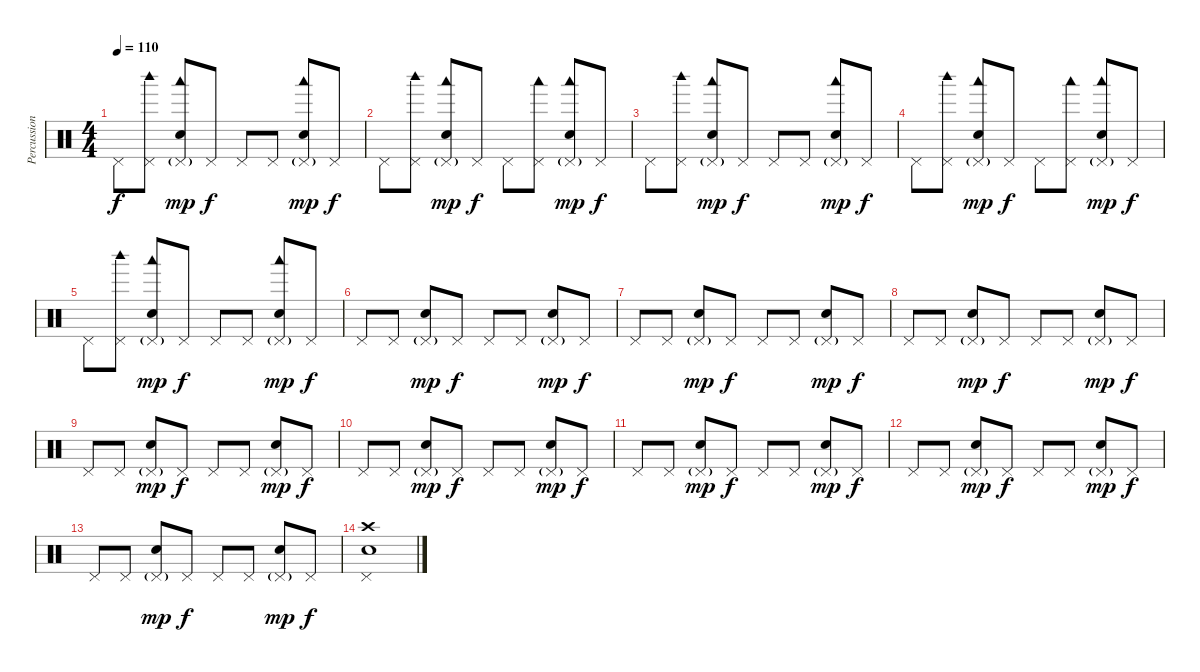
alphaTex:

\track ("Percussion" "Percussion") {instrument percussion}
\staff {score}
\articulation defaults
\ts (4 4)
\tempo 110
\clef neutral
\ks c "Pedal Hi-Hat (hit)".8{dy f}
("Woodblock high (hit)" "Pedal Hi-Hat (hit)").8 ("Woodblock low (hit)" "Pedal Hi-Hat (hit)"{g} "Electric Snare (hit)").8{dy mp} "Pedal Hi-Hat (hit)".8{dy f} "Pedal Hi-Hat (hit)".8 "Pedal Hi-Hat (hit)".8 ("Woodblock low (hit)" "Pedal Hi-Hat (hit)"{g} "Electric Snare (hit)").8{dy mp} "Pedal Hi-Hat (hit)".8{dy f} |
"Pedal Hi-Hat (hit)".8 ("Woodblock high (hit)" "Pedal Hi-Hat (hit)").8 ("Woodblock low (hit)" "Pedal Hi-Hat (hit)"{g} "Electric Snare (hit)").8{dy mp} "Pedal Hi-Hat (hit)".8{dy f} "Pedal Hi-Hat (hit)".8 ("Woodblock low (hit)" "Pedal Hi-Hat (hit)").8 ("Woodblock low (hit)" "Pedal Hi-Hat (hit)"{g} "Electric Snare (hit)").8{dy mp} "Pedal Hi-Hat (hit)".8{dy f} |
"Pedal Hi-Hat (hit)".8 ("Woodblock high (hit)" "Pedal Hi-Hat (hit)").8 ("Woodblock low (hit)" "Pedal Hi-Hat (hit)"{g} "Electric Snare (hit)").8{dy mp} "Pedal Hi-Hat (hit)".8{dy f} "Pedal Hi-Hat (hit)".8 "Pedal Hi-Hat (hit)".8 ("Woodblock low (hit)" "Pedal Hi-Hat (hit)"{g} "Electric Snare (hit)").8{dy mp} "Pedal Hi-Hat (hit)".8{dy f} |
"Pedal Hi-Hat (hit)".8 ("Woodblock high (hit)" "Pedal Hi-Hat (hit)").8 ("Woodblock low (hit)" "Pedal Hi-Hat (hit)"{g} "Electric Snare (hit)").8{dy mp} "Pedal Hi-Hat (hit)".8{dy f} "Pedal Hi-Hat (hit)".8 ("Woodblock low (hit)" "Pedal Hi-Hat (hit)").8 ("Woodblock low (hit)" "Pedal Hi-Hat (hit)"{g} "Electric Snare (hit)").8{dy mp} "Pedal Hi-Hat (hit)".8{dy f} |
"Pedal Hi-Hat (hit)".8 ("Woodblock high (hit)" "Pedal Hi-Hat (hit)").8 ("Woodblock low (hit)" "Pedal Hi-Hat (hit)"{g} "Electric Snare (hit)").8{dy mp} "Pedal Hi-Hat (hit)".8{dy f} "Pedal Hi-Hat (hit)".8 "Pedal Hi-Hat (hit)".8 ("Woodblock low (hit)" "Pedal Hi-Hat (hit)"{g} "Electric Snare (hit)").8{dy mp} "Pedal Hi-Hat (hit)".8{dy f} |
"Pedal Hi-Hat (hit)".8 "Pedal Hi-Hat (hit)".8 ("Pedal Hi-Hat (hit)"{g} "Electric Snare (hit)").8{dy mp} "Pedal Hi-Hat (hit)".8{dy f} "Pedal Hi-Hat (hit)".8 "Pedal Hi-Hat (hit)".8 ("Pedal Hi-Hat (hit)"{g} "Electric Snare (hit)").8{dy mp} "Pedal Hi-Hat (hit)".8{dy f} |
"Pedal Hi-Hat (hit)".8 "Pedal Hi-Hat (hit)".8 ("Pedal Hi-Hat (hit)"{g} "Electric Snare (hit)").8{dy mp} "Pedal Hi-Hat (hit)".8{dy f} "Pedal Hi-Hat (hit)".8 "Pedal Hi-Hat (hit)".8 ("Pedal Hi-Hat (hit)"{g} "Electric Snare (hit)").8{dy mp} "Pedal Hi-Hat (hit)".8{dy f} |
"Pedal Hi-Hat (hit)".8 "Pedal Hi-Hat (hit)".8 ("Pedal Hi-Hat (hit)"{g} "Electric Snare (hit)").8{dy mp} "Pedal Hi-Hat (hit)".8{dy f} "Pedal Hi-Hat (hit)".8 "Pedal Hi-Hat (hit)".8 ("Pedal Hi-Hat (hit)"{g} "Electric Snare (hit)").8{dy mp} "Pedal Hi-Hat (hit)".8{dy f} |
"Pedal Hi-Hat (hit)".8 "Pedal Hi-Hat (hit)".8 ("Pedal Hi-Hat (hit)"{g} "Electric Snare (hit)").8{dy mp} "Pedal Hi-Hat (hit)".8{dy f} "Pedal Hi-Hat (hit)".8 "Pedal Hi-Hat (hit)".8 ("Pedal Hi-Hat (hit)"{g} "Electric Snare (hit)").8{dy mp} "Pedal Hi-Hat (hit)".8{dy f} |
"Pedal Hi-Hat (hit)".8 "Pedal Hi-Hat (hit)".8 ("Pedal Hi-Hat (hit)"{g} "Electric Snare (hit)").8{dy mp} "Pedal Hi-Hat (hit)".8{dy f} "Pedal Hi-Hat (hit)".8 "Pedal Hi-Hat (hit)".8 ("Pedal Hi-Hat (hit)"{g} "Electric Snare (hit)").8{dy mp} "Pedal Hi-Hat (hit)".8{dy f} |
"Pedal Hi-Hat (hit)".8 "Pedal Hi-Hat (hit)".8 ("Pedal Hi-Hat (hit)"{g} "Electric Snare (hit)").8{dy mp} "Pedal Hi-Hat (hit)".8{dy f} "Pedal Hi-Hat (hit)".8 "Pedal Hi-Hat (hit)".8 ("Pedal Hi-Hat (hit)"{g} "Electric Snare (hit)").8{dy mp} "Pedal Hi-Hat (hit)".8{dy f} |
"Pedal Hi-Hat (hit)".8 "Pedal Hi-Hat (hit)".8 ("Pedal Hi-Hat (hit)"{g} "Electric Snare (hit)").8{dy mp} "Pedal Hi-Hat (hit)".8{dy f} "Pedal Hi-Hat (hit)".8 "Pedal Hi-Hat (hit)".8 ("Pedal Hi-Hat (hit)"{g} "Electric Snare (hit)").8{dy mp} "Pedal Hi-Hat (hit)".8{dy f} |
"Pedal Hi-Hat (hit)".8 "Pedal Hi-Hat (hit)".8 ("Pedal Hi-Hat (hit)"{g} "Electric Snare (hit)").8{dy mp} "Pedal Hi-Hat (hit)".8{dy f} "Pedal Hi-Hat (hit)".8 "Pedal Hi-Hat (hit)".8 ("Pedal Hi-Hat (hit)"{g} "Electric Snare (hit)").8{dy mp} "Pedal Hi-Hat (hit)".8{dy f} |
("Crash high (hit)" "Pedal Hi-Hat (hit)" "Electric Snare (hit)").1
